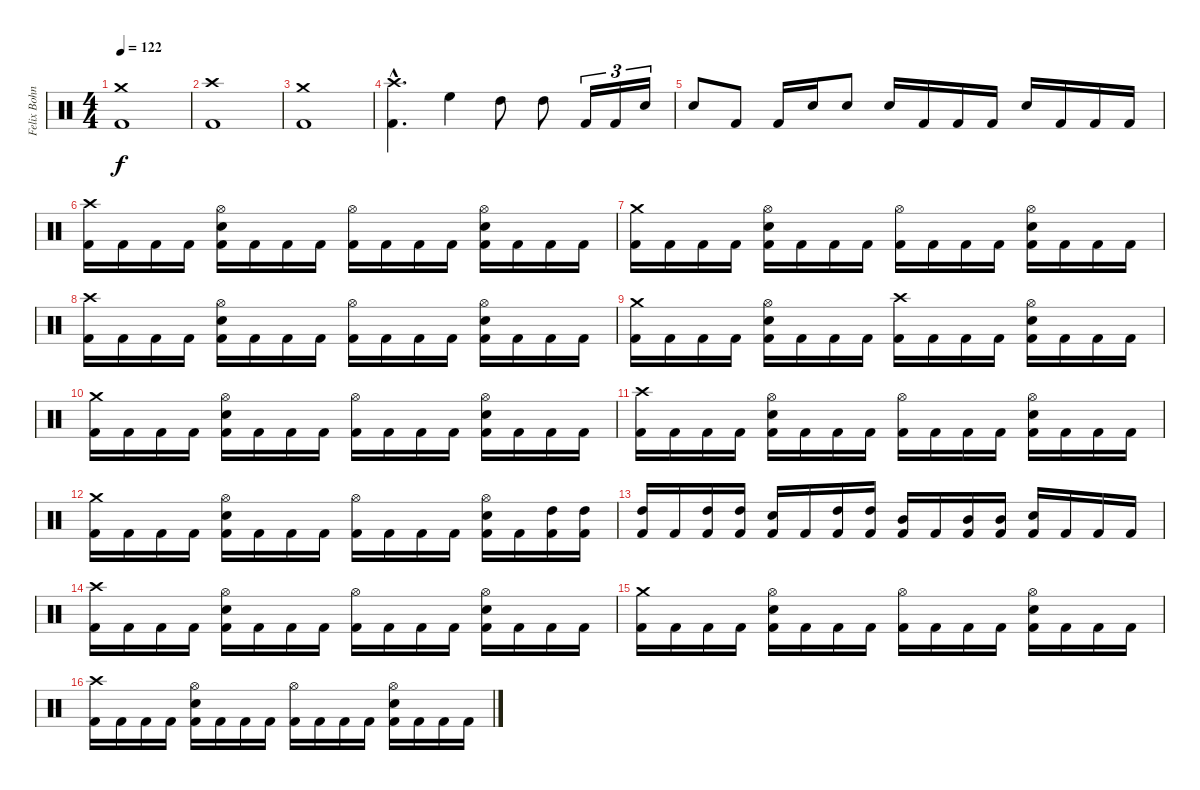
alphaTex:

\track ("Felix Bohnke" "Felix Bohn") {instrument percussion}
\staff {score}
\articulation defaults
\ts (4 4)
\tempo 122
\clef neutral
\ks c
("Crash medium (hit)" "Kick (hit) 2").1{dy f} |
("Crash high (hit)" "Kick (hit) 2").1 |
("Crash medium (hit)" "Kick (hit) 2").1 |
("Crash high (hit)"{hac} "Kick (hit) 2"{hac}).4{d} "High Floor Tom (hit)".4 "High Tom (hit)".8 "High Tom (hit)".8 "Kick (hit) 2".16{tu (3 2)} "Kick (hit) 2".16{tu (3 2)} "Snare (hit) 2".16{tu (3 2)} |
"Snare (hit) 2".8 "Kick (hit) 2".8 "Kick (hit) 2".16 "Snare (hit) 2".16 "Snare (hit) 2".8 "Snare (hit) 2".16 "Kick (hit) 2".16 "Kick (hit) 2".16 "Kick (hit) 2".16 "Snare (hit) 2".16 "Kick (hit) 2".16 "Kick (hit) 2".16 "Kick (hit) 2".16 |
("Crash high (hit)" "Kick (hit) 2").16 "Kick (hit) 2".16 "Kick (hit) 2".16 "Kick (hit) 2".16 ("Hi-Hat (open)" "Snare (hit) 2" "Kick (hit) 2").16 "Kick (hit) 2".16 "Kick (hit) 2".16 "Kick (hit) 2".16 ("Hi-Hat (open)" "Kick (hit) 2").16 "Kick (hit) 2".16 "Kick (hit) 2".16 "Kick (hit) 2".16 ("Hi-Hat (open)" "Snare (hit) 2" "Kick (hit) 2").16 "Kick (hit) 2".16 "Kick (hit) 2".16 "Kick (hit) 2".16 |
("Crash medium (hit)" "Kick (hit) 2").16 "Kick (hit) 2".16 "Kick (hit) 2".16 "Kick (hit) 2".16 ("Hi-Hat (open)" "Snare (hit) 2" "Kick (hit) 2").16 "Kick (hit) 2".16 "Kick (hit) 2".16 "Kick (hit) 2".16 ("Hi-Hat (open)" "Kick (hit) 2").16 "Kick (hit) 2".16 "Kick (hit) 2".16 "Kick (hit) 2".16 ("Hi-Hat (open)" "Snare (hit) 2" "Kick (hit) 2").16 "Kick (hit) 2".16 "Kick (hit) 2".16 "Kick (hit) 2".16 |
("Crash high (hit)" "Kick (hit) 2").16 "Kick (hit) 2".16 "Kick (hit) 2".16 "Kick (hit) 2".16 ("Hi-Hat (open)" "Snare (hit) 2" "Kick (hit) 2").16 "Kick (hit) 2".16 "Kick (hit) 2".16 "Kick (hit) 2".16 ("Hi-Hat (open)" "Kick (hit) 2").16 "Kick (hit) 2".16 "Kick (hit) 2".16 "Kick (hit) 2".16 ("Hi-Hat (open)" "Snare (hit) 2" "Kick (hit) 2").16 "Kick (hit) 2".16 "Kick (hit) 2".16 "Kick (hit) 2".16 |
("Crash medium (hit)" "Kick (hit) 2").16 "Kick (hit) 2".16 "Kick (hit) 2".16 "Kick (hit) 2".16 ("Hi-Hat (open)" "Snare (hit) 2" "Kick (hit) 2").16 "Kick (hit) 2".16 "Kick (hit) 2".16 "Kick (hit) 2".16 ("Crash high (hit)" "Kick (hit) 2").16 "Kick (hit) 2".16 "Kick (hit) 2".16 "Kick (hit) 2".16 ("Hi-Hat (open)" "Snare (hit) 2" "Kick (hit) 2").16 "Kick (hit) 2".16 "Kick (hit) 2".16 "Kick (hit) 2".16 |
("Crash medium (hit)" "Kick (hit) 2").16 "Kick (hit) 2".16 "Kick (hit) 2".16 "Kick (hit) 2".16 ("Hi-Hat (open)" "Snare (hit) 2" "Kick (hit) 2").16 "Kick (hit) 2".16 "Kick (hit) 2".16 "Kick (hit) 2".16 ("Hi-Hat (open)" "Kick (hit) 2").16 "Kick (hit) 2".16 "Kick (hit) 2".16 "Kick (hit) 2".16 ("Hi-Hat (open)" "Snare (hit) 2" "Kick (hit) 2").16 "Kick (hit) 2".16 "Kick (hit) 2".16 "Kick (hit) 2".16 |
("Crash high (hit)" "Kick (hit) 2").16 "Kick (hit) 2".16 "Kick (hit) 2".16 "Kick (hit) 2".16 ("Hi-Hat (open)" "Snare (hit) 2" "Kick (hit) 2").16 "Kick (hit) 2".16 "Kick (hit) 2".16 "Kick (hit) 2".16 ("Hi-Hat (open)" "Kick (hit) 2").16 "Kick (hit) 2".16 "Kick (hit) 2".16 "Kick (hit) 2".16 ("Hi-Hat (open)" "Snare (hit) 2" "Kick (hit) 2").16 "Kick (hit) 2".16 "Kick (hit) 2".16 "Kick (hit) 2".16 |
("Crash medium (hit)" "Kick (hit) 2").16 "Kick (hit) 2".16 "Kick (hit) 2".16 "Kick (hit) 2".16 ("Hi-Hat (open)" "Snare (hit) 2" "Kick (hit) 2").16 "Kick (hit) 2".16 "Kick (hit) 2".16 "Kick (hit) 2".16 ("Hi-Hat (open)" "Kick (hit) 2").16 "Kick (hit) 2".16 "Kick (hit) 2".16 "Kick (hit) 2".16 ("Hi-Hat (open)" "Snare (hit) 2" "Kick (hit) 2").16 "Kick (hit) 2".16 ("High Tom (hit)" "Kick (hit) 2").16 ("High Tom (hit)" "Kick (hit) 2").16 |
("High Tom (hit)" "Kick (hit) 2").16 "Kick (hit) 2".16 ("High Tom (hit)" "Kick (hit) 2").16 ("High Tom (hit)" "Kick (hit) 2").16 ("Snare (hit) 2" "Kick (hit) 2").16 "Kick (hit) 2".16 ("High Tom (hit)" "Kick (hit) 2").16 ("High Tom (hit)" "Kick (hit) 2").16 ("Mid Tom (hit)" "Kick (hit) 2").16 "Kick (hit) 2".16 ("Mid Tom (hit)" "Kick (hit) 2").16 ("Mid Tom (hit)" "Kick (hit) 2").16 ("Snare (hit) 2" "Kick (hit) 2").16 "Kick (hit) 2".16 "Kick (hit) 2".16 "Kick (hit) 2".16 |
("Crash high (hit)" "Kick (hit) 2").16 "Kick (hit) 2".16 "Kick (hit) 2".16 "Kick (hit) 2".16 ("Hi-Hat (open)" "Snare (hit) 2" "Kick (hit) 2").16 "Kick (hit) 2".16 "Kick (hit) 2".16 "Kick (hit) 2".16 ("Hi-Hat (open)" "Kick (hit) 2").16 "Kick (hit) 2".16 "Kick (hit) 2".16 "Kick (hit) 2".16 ("Hi-Hat (open)" "Snare (hit) 2" "Kick (hit) 2").16 "Kick (hit) 2".16 "Kick (hit) 2".16 "Kick (hit) 2".16 |
("Crash medium (hit)" "Kick (hit) 2").16 "Kick (hit) 2".16 "Kick (hit) 2".16 "Kick (hit) 2".16 ("Hi-Hat (open)" "Snare (hit) 2" "Kick (hit) 2").16 "Kick (hit) 2".16 "Kick (hit) 2".16 "Kick (hit) 2".16 ("Hi-Hat (open)" "Kick (hit) 2").16 "Kick (hit) 2".16 "Kick (hit) 2".16 "Kick (hit) 2".16 ("Hi-Hat (open)" "Snare (hit) 2" "Kick (hit) 2").16 "Kick (hit) 2".16 "Kick (hit) 2".16 "Kick (hit) 2".16 |
("Crash high (hit)" "Kick (hit) 2").16 "Kick (hit) 2".16 "Kick (hit) 2".16 "Kick (hit) 2".16 ("Hi-Hat (open)" "Snare (hit) 2" "Kick (hit) 2").16 "Kick (hit) 2".16 "Kick (hit) 2".16 "Kick (hit) 2".16 ("Hi-Hat (open)" "Kick (hit) 2").16 "Kick (hit) 2".16 "Kick (hit) 2".16 "Kick (hit) 2".16 ("Hi-Hat (open)" "Snare (hit) 2" "Kick (hit) 2").16 "Kick (hit) 2".16 "Kick (hit) 2".16 "Kick (hit) 2".16
